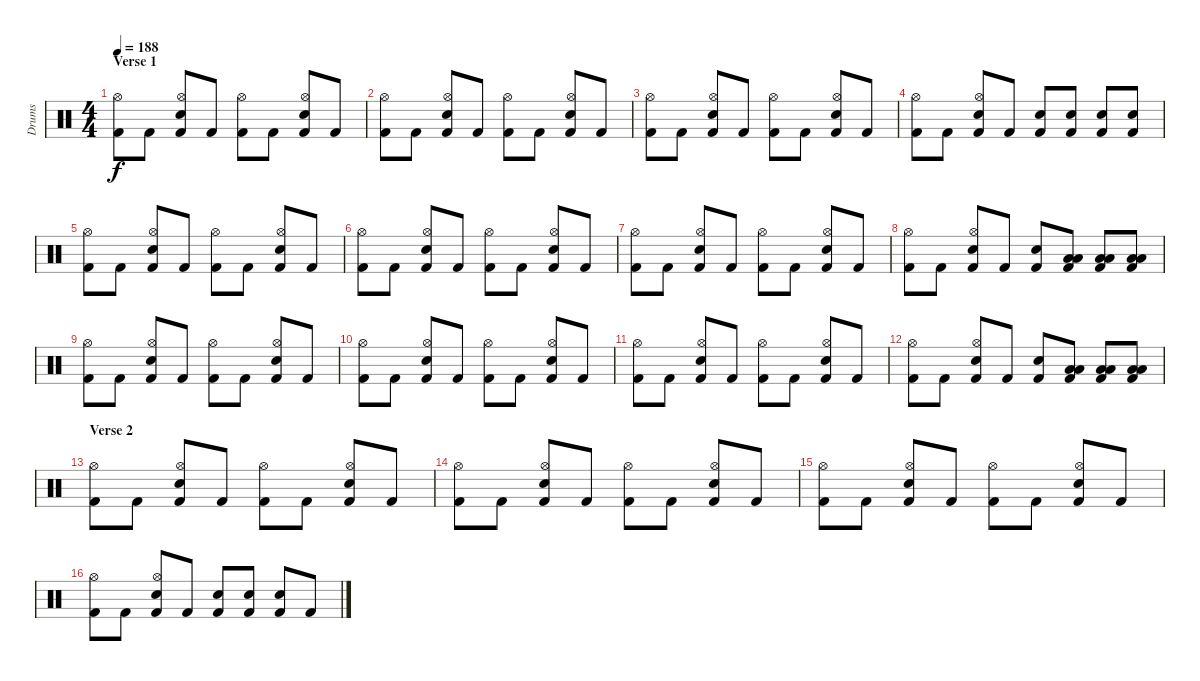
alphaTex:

\track ("Drums" "Drums") {instrument percussion}
\staff {score}
\articulation defaults
\ts (4 4)
\section ("" "Verse 1")
\tempo 188
\clef neutral
\ks c
("Kick (hit) 2" "Hi-Hat (open)").8{dy f} "Kick (hit) 2".8 ("Kick (hit) 2" "Snare (hit) 2" "Hi-Hat (open)").8 "Kick (hit) 2".8 ("Kick (hit) 2" "Hi-Hat (open)").8 "Kick (hit) 2".8 ("Kick (hit) 2" "Snare (hit) 2" "Hi-Hat (open)").8 "Kick (hit) 2".8 |
("Kick (hit) 2" "Hi-Hat (open)").8 "Kick (hit) 2".8 ("Kick (hit) 2" "Snare (hit) 2" "Hi-Hat (open)").8 "Kick (hit) 2".8 ("Kick (hit) 2" "Hi-Hat (open)").8 "Kick (hit) 2".8 ("Kick (hit) 2" "Snare (hit) 2" "Hi-Hat (open)").8 "Kick (hit) 2".8 |
("Kick (hit) 2" "Hi-Hat (open)").8 "Kick (hit) 2".8 ("Kick (hit) 2" "Snare (hit) 2" "Hi-Hat (open)").8 "Kick (hit) 2".8 ("Kick (hit) 2" "Hi-Hat (open)").8 "Kick (hit) 2".8 ("Kick (hit) 2" "Snare (hit) 2" "Hi-Hat (open)").8 "Kick (hit) 2".8 |
("Kick (hit) 2" "Hi-Hat (open)").8 "Kick (hit) 2".8 ("Kick (hit) 2" "Snare (hit) 2" "Hi-Hat (open)").8 "Kick (hit) 2".8 ("Kick (hit) 2" "Snare (hit) 2").8 ("Kick (hit) 2" "Snare (hit) 2").8 ("Kick (hit) 2" "Snare (hit) 2").8 ("Kick (hit) 2" "Snare (hit) 2").8 |
("Kick (hit) 2" "Hi-Hat (open)").8 "Kick (hit) 2".8 ("Kick (hit) 2" "Snare (hit) 2" "Hi-Hat (open)").8 "Kick (hit) 2".8 ("Kick (hit) 2" "Hi-Hat (open)").8 "Kick (hit) 2".8 ("Kick (hit) 2" "Snare (hit) 2" "Hi-Hat (open)").8 "Kick (hit) 2".8 |
("Kick (hit) 2" "Hi-Hat (open)").8 "Kick (hit) 2".8 ("Kick (hit) 2" "Snare (hit) 2" "Hi-Hat (open)").8 "Kick (hit) 2".8 ("Kick (hit) 2" "Hi-Hat (open)").8 "Kick (hit) 2".8 ("Kick (hit) 2" "Snare (hit) 2" "Hi-Hat (open)").8 "Kick (hit) 2".8 |
("Kick (hit) 2" "Hi-Hat (open)").8 "Kick (hit) 2".8 ("Kick (hit) 2" "Snare (hit) 2" "Hi-Hat (open)").8 "Kick (hit) 2".8 ("Kick (hit) 2" "Hi-Hat (open)").8 "Kick (hit) 2".8 ("Kick (hit) 2" "Snare (hit) 2" "Hi-Hat (open)").8 "Kick (hit) 2".8 |
("Kick (hit) 2" "Hi-Hat (open)").8 "Kick (hit) 2".8 ("Kick (hit) 2" "Snare (hit) 2" "Hi-Hat (open)").8 "Kick (hit) 2".8 ("Kick (hit) 2" "Snare (hit) 2").8 ("Kick (hit) 2" "Low Tom (hit)" "Low Tom (hit)").8 ("Kick (hit) 2" "Low Tom (hit)" "Low Tom (hit)").8 ("Kick (hit) 2" "Low Tom (hit)" "Low Tom (hit)").8 |
("Kick (hit) 2" "Hi-Hat (open)").8 "Kick (hit) 2".8 ("Kick (hit) 2" "Snare (hit) 2" "Hi-Hat (open)").8 "Kick (hit) 2".8 ("Kick (hit) 2" "Hi-Hat (open)").8 "Kick (hit) 2".8 ("Kick (hit) 2" "Snare (hit) 2" "Hi-Hat (open)").8 "Kick (hit) 2".8 |
("Kick (hit) 2" "Hi-Hat (open)").8 "Kick (hit) 2".8 ("Kick (hit) 2" "Snare (hit) 2" "Hi-Hat (open)").8 "Kick (hit) 2".8 ("Kick (hit) 2" "Hi-Hat (open)").8 "Kick (hit) 2".8 ("Kick (hit) 2" "Snare (hit) 2" "Hi-Hat (open)").8 "Kick (hit) 2".8 |
("Kick (hit) 2" "Hi-Hat (open)").8 "Kick (hit) 2".8 ("Kick (hit) 2" "Snare (hit) 2" "Hi-Hat (open)").8 "Kick (hit) 2".8 ("Kick (hit) 2" "Hi-Hat (open)").8 "Kick (hit) 2".8 ("Kick (hit) 2" "Snare (hit) 2" "Hi-Hat (open)").8 "Kick (hit) 2".8 |
("Kick (hit) 2" "Hi-Hat (open)").8 "Kick (hit) 2".8 ("Kick (hit) 2" "Snare (hit) 2" "Hi-Hat (open)").8 "Kick (hit) 2".8 ("Kick (hit) 2" "Snare (hit) 2").8 ("Kick (hit) 2" "Low Tom (hit)" "Low Tom (hit)").8 ("Kick (hit) 2" "Low Tom (hit)" "Low Tom (hit)").8 ("Kick (hit) 2" "Low Tom (hit)" "Low Tom (hit)").8 |
\section ("" "Verse 2")
("Kick (hit) 2" "Hi-Hat (open)").8 "Kick (hit) 2".8 ("Kick (hit) 2" "Snare (hit) 2" "Hi-Hat (open)").8 "Kick (hit) 2".8 ("Kick (hit) 2" "Hi-Hat (open)").8 "Kick (hit) 2".8 ("Kick (hit) 2" "Snare (hit) 2" "Hi-Hat (open)").8 "Kick (hit) 2".8 |
("Kick (hit) 2" "Hi-Hat (open)").8 "Kick (hit) 2".8 ("Kick (hit) 2" "Snare (hit) 2" "Hi-Hat (open)").8 "Kick (hit) 2".8 ("Kick (hit) 2" "Hi-Hat (open)").8 "Kick (hit) 2".8 ("Kick (hit) 2" "Snare (hit) 2" "Hi-Hat (open)").8 "Kick (hit) 2".8 |
("Kick (hit) 2" "Hi-Hat (open)").8 "Kick (hit) 2".8 ("Kick (hit) 2" "Snare (hit) 2" "Hi-Hat (open)").8 "Kick (hit) 2".8 ("Kick (hit) 2" "Hi-Hat (open)").8 "Kick (hit) 2".8 ("Kick (hit) 2" "Snare (hit) 2" "Hi-Hat (open)").8 "Kick (hit) 2".8 |
("Kick (hit) 2" "Hi-Hat (open)").8 "Kick (hit) 2".8 ("Kick (hit) 2" "Snare (hit) 2" "Hi-Hat (open)").8 "Kick (hit) 2".8 ("Kick (hit) 2" "Snare (hit) 2").8 ("Kick (hit) 2" "Snare (hit) 2").8 ("Kick (hit) 2" "Snare (hit) 2").8 "Kick (hit) 2".8
